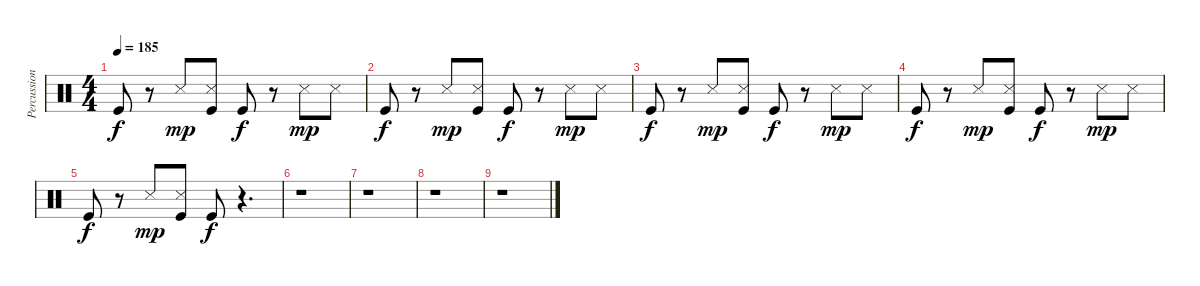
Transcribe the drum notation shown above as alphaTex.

\track ("Percussion" "Percussion") {instrument percussion}
\staff {score}
\articulation defaults
\ts (4 4)
\tempo 185
\clef neutral
\ks c "Kick (hit)".8{dy f}
r.8 "Metronome (hit)".8{dy mp} ("Metronome (hit)" "Kick (hit)").8 "Kick (hit)".8{dy f} r.8 "Snare (side stick) 3".8{dy mp} "Snare (side stick) 3".8 |
"Kick (hit)".8{dy f} r.8 "Metronome (hit)".8{dy mp} ("Metronome (hit)" "Kick (hit)").8 "Kick (hit)".8{dy f} r.8 "Snare (side stick) 3".8{dy mp} "Snare (side stick) 3".8 |
"Kick (hit)".8{dy f} r.8 "Metronome (hit)".8{dy mp} ("Metronome (hit)" "Kick (hit)").8 "Kick (hit)".8{dy f} r.8 "Snare (side stick) 3".8{dy mp} "Snare (side stick) 3".8 |
"Kick (hit)".8{dy f} r.8 "Metronome (hit)".8{dy mp} ("Metronome (hit)" "Kick (hit)").8 "Kick (hit)".8{dy f} r.8 "Snare (side stick) 3".8{dy mp} "Snare (side stick) 3".8 |
"Kick (hit)".8{dy f} r.8 "Metronome (hit)".8{dy mp} ("Metronome (hit)" "Kick (hit)").8 "Kick (hit)".8{dy f} r.4{d} |
r.1 |
r.1 |
r.1 |
r.1
